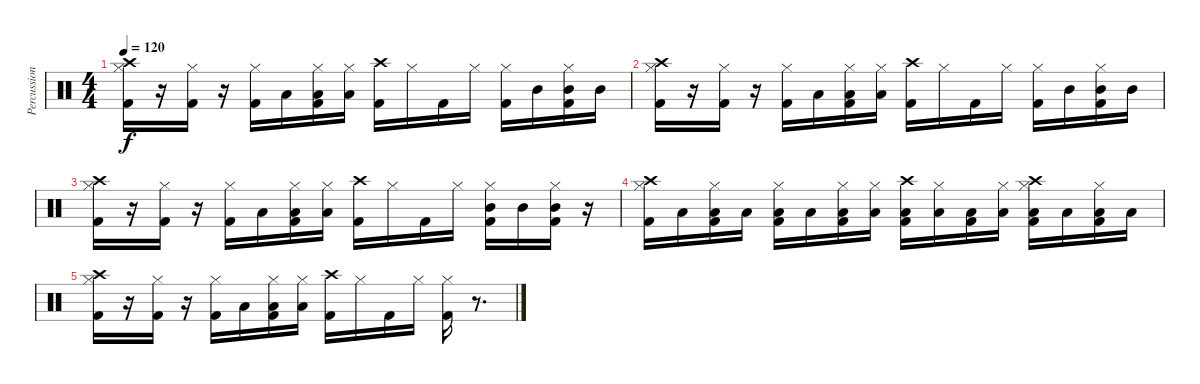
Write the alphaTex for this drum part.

\track ("Percussion" "Percussion") {instrument percussion}
\staff {score}
\articulation defaults
\ts (4 4)
\tempo 120
\clef neutral
\ks c
("Hi-Hat (closed)" "Kick (hit) 2" "Crash high (hit)").16{dy f} r.16 ("Hi-Hat (closed)" "Kick (hit) 2").16 r.16 ("Hi-Hat (closed)" "Kick (hit) 2").16 "Low Floor Tom (hit)".16 ("Hi-Hat (closed)" "Kick (hit) 2" "Low Floor Tom (hit)").16 ("Hi-Hat (closed)" "Low Floor Tom (hit)").16 ("Kick (hit) 2" "Crash high (hit)").16 "Hi-Hat (closed)".16 "Kick (hit) 2".16 "Hi-Hat (closed)".16 ("Hi-Hat (closed)" "Kick (hit) 2").16 "Mid Tom (hit)".16 ("Hi-Hat (closed)" "Kick (hit) 2" "Mid Tom (hit)").16 "Mid Tom (hit)".16 |
("Hi-Hat (closed)" "Kick (hit) 2" "Crash high (hit)").16 r.16 ("Hi-Hat (closed)" "Kick (hit) 2").16 r.16 ("Hi-Hat (closed)" "Kick (hit) 2").16 "Low Floor Tom (hit)".16 ("Hi-Hat (closed)" "Kick (hit) 2" "Low Floor Tom (hit)").16 ("Hi-Hat (closed)" "Low Floor Tom (hit)").16 ("Kick (hit) 2" "Crash high (hit)").16 "Hi-Hat (closed)".16 "Kick (hit) 2".16 "Hi-Hat (closed)".16 ("Hi-Hat (closed)" "Kick (hit) 2").16 "Mid Tom (hit)".16 ("Hi-Hat (closed)" "Kick (hit) 2" "Mid Tom (hit)").16 "Mid Tom (hit)".16 |
("Hi-Hat (closed)" "Kick (hit) 2" "Crash high (hit)").16 r.16 ("Hi-Hat (closed)" "Kick (hit) 2").16 r.16 ("Hi-Hat (closed)" "Kick (hit) 2").16 "Low Floor Tom (hit)".16 ("Hi-Hat (closed)" "Kick (hit) 2" "Low Floor Tom (hit)").16 ("Hi-Hat (closed)" "Low Floor Tom (hit)").16 ("Kick (hit) 2" "Crash high (hit)").16 "Hi-Hat (closed)".16 "Kick (hit) 2".16 "Hi-Hat (closed)".16 ("Hi-Hat (closed)" "Kick (hit) 2" "Mid Tom (hit)").16 "Mid Tom (hit)".16 ("Hi-Hat (closed)" "Kick (hit) 2" "Mid Tom (hit)").16 r.16 |
("Hi-Hat (closed)" "Kick (hit) 2" "Crash high (hit)").16 "Low Floor Tom (hit)".16 ("Hi-Hat (closed)" "Kick (hit) 2" "Low Floor Tom (hit)").16 "Low Floor Tom (hit)".16 ("Hi-Hat (closed)" "Kick (hit) 2" "Low Floor Tom (hit)").16 "Low Floor Tom (hit)".16 ("Hi-Hat (closed)" "Kick (hit) 2" "Low Floor Tom (hit)").16 ("Hi-Hat (closed)" "Low Floor Tom (hit)").16 ("Kick (hit) 2" "Low Floor Tom (hit)" "Crash high (hit)").16 ("Hi-Hat (closed)" "Low Floor Tom (hit)").16 ("Kick (hit) 2" "Low Floor Tom (hit)").16 ("Hi-Hat (closed)" "Low Floor Tom (hit)").16 ("Hi-Hat (closed)" "Kick (hit) 2" "Low Floor Tom (hit)" "Crash high (hit)").16 "Low Floor Tom (hit)".16 ("Hi-Hat (closed)" "Kick (hit) 2" "Low Floor Tom (hit)").16 "Low Floor Tom (hit)".16 |
("Hi-Hat (closed)" "Kick (hit) 2" "Crash high (hit)").16 r.16 ("Hi-Hat (closed)" "Kick (hit) 2").16 r.16 ("Hi-Hat (closed)" "Kick (hit) 2").16 "Low Floor Tom (hit)".16 ("Hi-Hat (closed)" "Kick (hit) 2" "Low Floor Tom (hit)").16 ("Hi-Hat (closed)" "Low Floor Tom (hit)").16 ("Kick (hit) 2" "Crash high (hit)").16 "Hi-Hat (closed)".16 "Kick (hit) 2".16 "Hi-Hat (closed)".16 ("Hi-Hat (closed)" "Kick (hit) 2").16 r.8{d}
